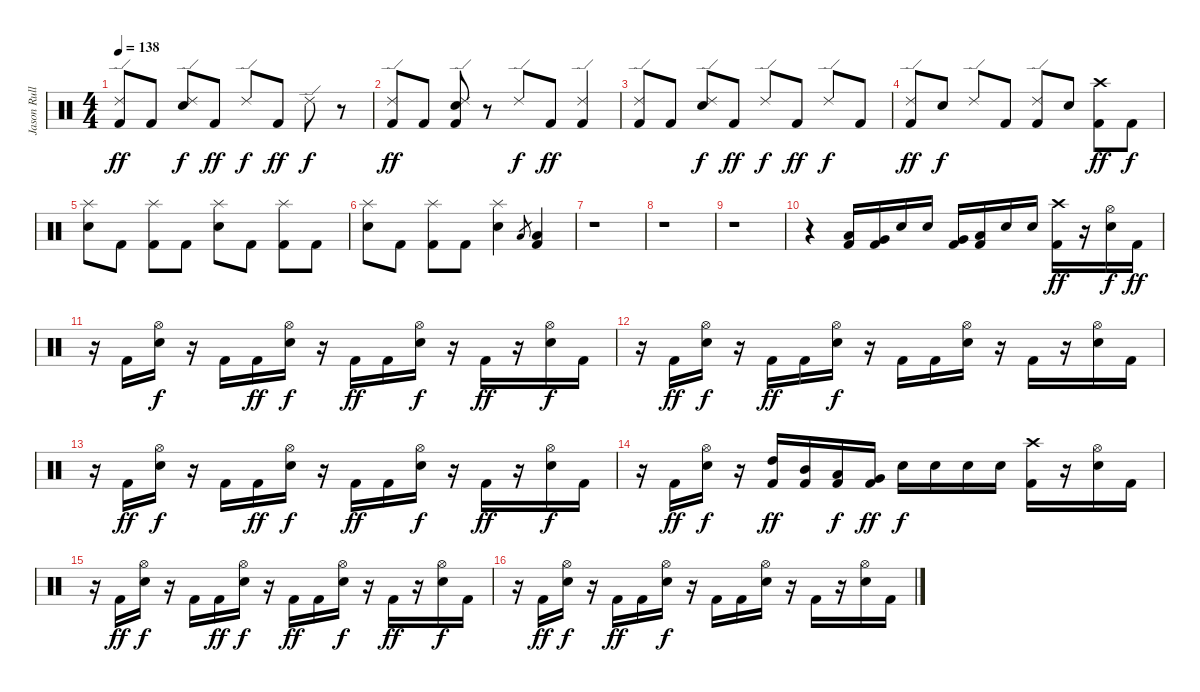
\track ("Jason Rullo" "Jason Rull") {instrument percussion}
\staff {score}
\articulation defaults
\ts (4 4)
\tempo 138
\clef neutral
\ks c
("Kick (hit) 2" "Ride (edge) 2").8{dy ff} "Kick (hit) 2".8 ("Electric Snare (hit)" "Ride (edge) 2").8{dy f} "Kick (hit) 2".8{dy ff} "Ride (edge) 2".8{dy f} "Kick (hit) 2".8{dy ff} "Ride (edge) 2".8{dy f} r.8 |
("Kick (hit) 2" "Ride (edge) 2").8{dy ff} "Kick (hit) 2".8 ("Kick (hit) 2" "Electric Snare (hit)" "Ride (edge) 2").8 r.8 "Ride (edge) 2".8{dy f} "Kick (hit) 2".8{dy ff} ("Kick (hit) 2" "Ride (edge) 2").4 |
("Kick (hit) 2" "Ride (edge) 2").8 "Kick (hit) 2".8 ("Electric Snare (hit)" "Ride (edge) 2").8{dy f} "Kick (hit) 2".8{dy ff} "Ride (edge) 2".8{dy f} "Kick (hit) 2".8{dy ff} "Ride (edge) 2".8{dy f} "Kick (hit) 2".8 |
("Kick (hit) 2" "Ride (edge) 2").8{dy ff} "Electric Snare (hit)".8{dy f} "Ride (edge) 2".8 "Kick (hit) 2".8 ("Kick (hit) 2" "Ride (edge) 2").8 "Electric Snare (hit)".8 ("Kick (hit) 2" "Crash high (hit)").8{dy ff} "Kick (hit) 2".8{dy f} |
("Electric Snare (hit)" "Splash (hit)").8 "Kick (hit) 2".8 ("Kick (hit) 2" "Splash (hit)").8 "Kick (hit) 2".8 ("Electric Snare (hit)" "Splash (hit)").8 "Kick (hit) 2".8 ("Kick (hit) 2" "Splash (hit)").8 "Kick (hit) 2".8 |
("Electric Snare (hit)" "Splash (hit)").8 "Kick (hit) 2".8 ("Kick (hit) 2" "Splash (hit)").8 "Kick (hit) 2".8 ("Electric Snare (hit)" "Splash (hit)").4 "Low Tom (hit)".8{gr} ("Kick (hit) 2" "Low Tom (hit)").4 |
r.1 |
r.1 |
r.1 |
r.4 ("Kick (hit) 2" "Low Tom (hit)").16 ("Kick (hit) 2" "Very Low Tom (hit)").16 "Electric Snare (hit)".16 "Electric Snare (hit)".16 ("Kick (hit) 2" "Very Low Tom (hit)").16 ("Kick (hit) 2" "Low Floor Tom (hit)").16 "Electric Snare (hit)".16 "Electric Snare (hit)".16 ("Kick (hit) 2" "Crash high (hit)").16{dy ff} r.16 ("Electric Snare (hit)" "Hi-Hat (open)").16{dy f} "Kick (hit) 2".16{dy ff} |
r.16 "Kick (hit) 2".16 ("Electric Snare (hit)" "Hi-Hat (open)").16{dy f} r.16 "Kick (hit) 2".16 "Kick (hit) 2".16{dy ff} ("Electric Snare (hit)" "Hi-Hat (open)").16{dy f} r.16 "Kick (hit) 2".16{dy ff} "Kick (hit) 2".16 ("Electric Snare (hit)" "Hi-Hat (open)").16{dy f} r.16 "Kick (hit) 2".16{dy ff} r.16 ("Electric Snare (hit)" "Hi-Hat (open)").16{dy f} "Kick (hit) 2".16 |
r.16 "Kick (hit) 2".16{dy ff} ("Electric Snare (hit)" "Hi-Hat (open)").16{dy f} r.16 "Kick (hit) 2".16{dy ff} "Kick (hit) 2".16 ("Electric Snare (hit)" "Hi-Hat (open)").16{dy f} r.16 "Kick (hit) 2".16 "Kick (hit) 2".16 ("Electric Snare (hit)" "Hi-Hat (open)").16 r.16 "Kick (hit) 2".16 r.16 ("Electric Snare (hit)" "Hi-Hat (open)").16 "Kick (hit) 2".16 |
r.16 "Kick (hit) 2".16{dy ff} ("Electric Snare (hit)" "Hi-Hat (open)").16{dy f} r.16 "Kick (hit) 2".16 "Kick (hit) 2".16{dy ff} ("Electric Snare (hit)" "Hi-Hat (open)").16{dy f} r.16 "Kick (hit) 2".16{dy ff} "Kick (hit) 2".16 ("Electric Snare (hit)" "Hi-Hat (open)").16{dy f} r.16 "Kick (hit) 2".16{dy ff} r.16 ("Electric Snare (hit)" "Hi-Hat (open)").16{dy f} "Kick (hit) 2".16 |
r.16 "Kick (hit) 2".16{dy ff} ("Electric Snare (hit)" "Hi-Hat (open)").16{dy f} r.16 ("Kick (hit) 2" "High Tom (hit)").16{dy ff} ("Kick (hit) 2" "Mid Tom (hit)").16 ("Kick (hit) 2" "Low Tom (hit)").16{dy f} ("Kick (hit) 2" "Very Low Tom (hit)").16{dy ff} "Electric Snare (hit)".16{dy f} "Electric Snare (hit)".16 "Electric Snare (hit)".16 "Electric Snare (hit)".16 ("Kick (hit) 2" "Crash high (hit)").16 r.16 ("Electric Snare (hit)" "Hi-Hat (open)").16 "Kick (hit) 2".16 |
r.16 "Kick (hit) 2".16{dy ff} ("Electric Snare (hit)" "Hi-Hat (open)").16{dy f} r.16 "Kick (hit) 2".16 "Kick (hit) 2".16{dy ff} ("Electric Snare (hit)" "Hi-Hat (open)").16{dy f} r.16 "Kick (hit) 2".16{dy ff} "Kick (hit) 2".16 ("Electric Snare (hit)" "Hi-Hat (open)").16{dy f} r.16 "Kick (hit) 2".16{dy ff} r.16 ("Electric Snare (hit)" "Hi-Hat (open)").16{dy f} "Kick (hit) 2".16 |
r.16 "Kick (hit) 2".16{dy ff} ("Electric Snare (hit)" "Hi-Hat (open)").16{dy f} r.16 "Kick (hit) 2".16{dy ff} "Kick (hit) 2".16 ("Electric Snare (hit)" "Hi-Hat (open)").16{dy f} r.16 "Kick (hit) 2".16 "Kick (hit) 2".16 ("Electric Snare (hit)" "Hi-Hat (open)").16 r.16 "Kick (hit) 2".16 r.16 ("Electric Snare (hit)" "Hi-Hat (open)").16 "Kick (hit) 2".16
